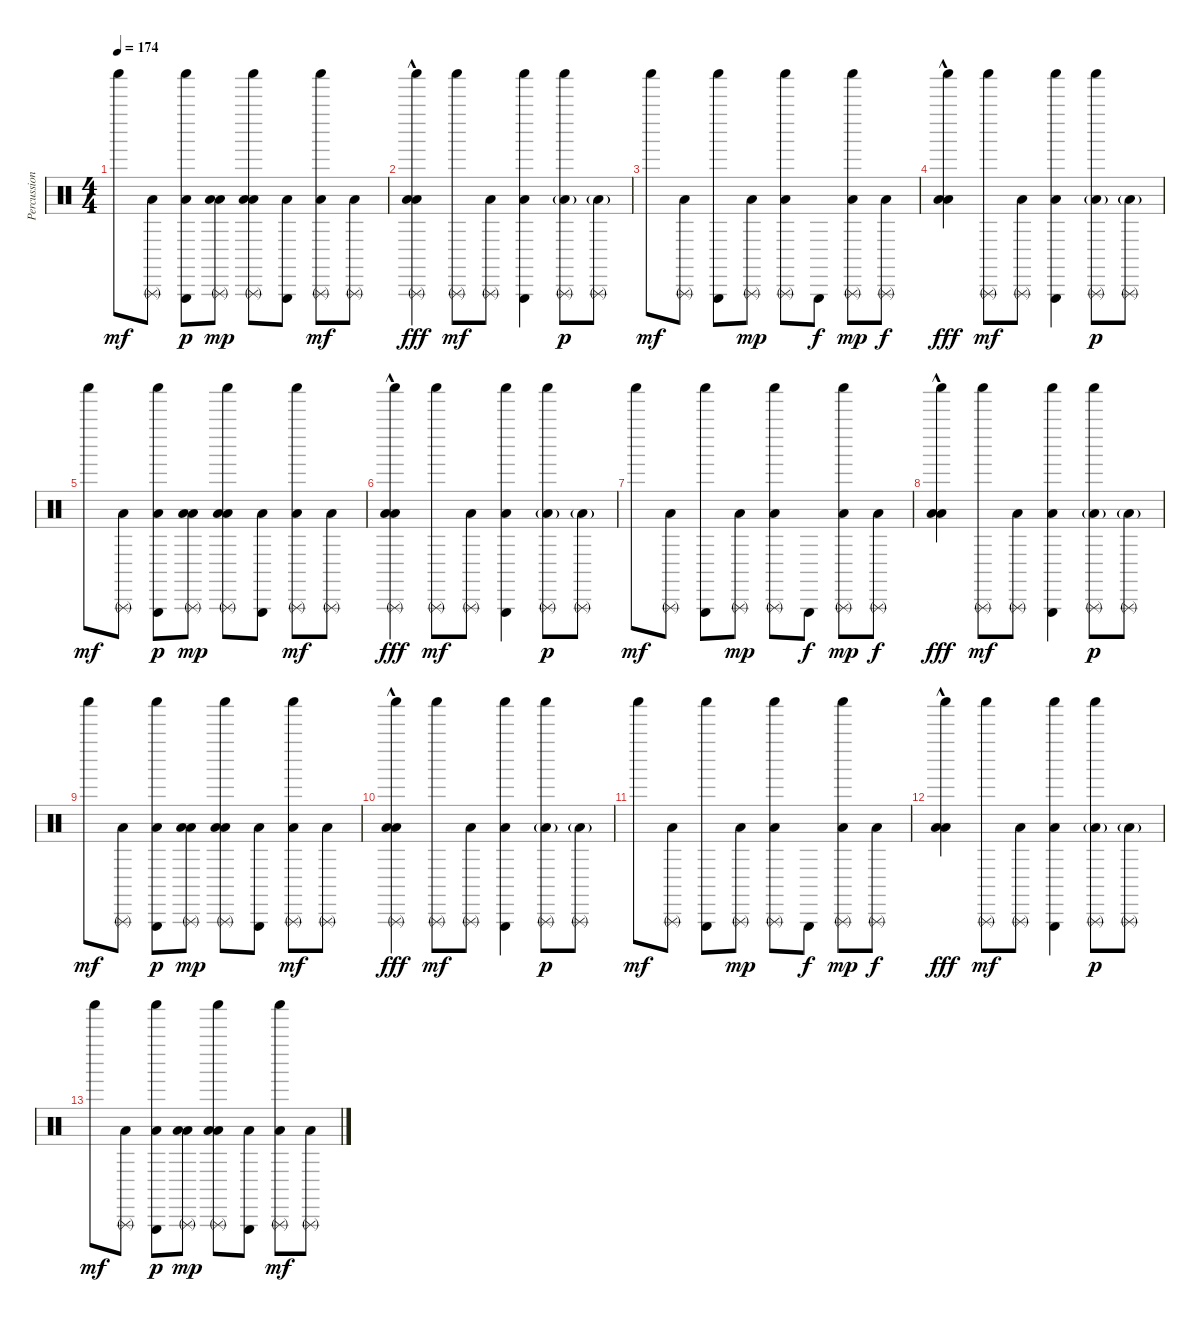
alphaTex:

\track ("Percussion" "Percussion") {instrument percussion}
\staff {score}
\articulation defaults
\ts (4 4)
\tempo 174
\clef neutral
\ks c "Shaker (hit)".8{dy mf}
("Triangle (rnute)" "Low Floor Tom (hit)").8 ("Shaker (hit)" "Triangle (hit)" "Low Tom (hit)").8{dy p} ("Triangle (rnute)" "Low Tom (hit)" "Low Floor Tom (hit)").8{dy mp} ("Shaker (hit)" "Triangle (rnute)" "Low Tom (hit)" "Low Floor Tom (hit)").8 ("Triangle (hit)" "Low Tom (hit)").8 ("Shaker (hit)" "Triangle (rnute)" "Low Tom (hit)").8{dy mf} ("Triangle (rnute)" "Low Tom (hit)").8 |
("Shaker (hit)" "Triangle (rnute)" "Low Tom (hit)"{hac} "Low Floor Tom (hit)"{hac}).4{dy fff} ("Shaker (hit)" "Triangle (rnute)").8{dy mf} ("Triangle (rnute)" "Low Floor Tom (hit)").8 ("Shaker (hit)" "Triangle (hit)" "Low Floor Tom (hit)").4 ("Shaker (hit)" "Triangle (rnute)" "Low Floor Tom (hit)"{g}).8{dy p} ("Triangle (rnute)" "Low Floor Tom (hit)"{g}).8 |
"Shaker (hit)".8{dy mf} ("Triangle (rnute)" "Low Floor Tom (hit)").8 ("Shaker (hit)" "Triangle (hit)").8 ("Triangle (rnute)" "Low Floor Tom (hit)").8{dy mp} ("Shaker (hit)" "Triangle (rnute)" "Low Floor Tom (hit)").8 "Triangle (hit)".8{dy f} ("Shaker (hit)" "Triangle (rnute)" "Low Tom (hit)").8{dy mp} ("Triangle (rnute)" "Low Tom (hit)").8{dy f} |
("Shaker (hit)" "Low Tom (hit)"{hac} "Low Floor Tom (hit)"{hac}).4{dy fff} ("Shaker (hit)" "Triangle (rnute)").8{dy mf} ("Triangle (rnute)" "Low Floor Tom (hit)").8 ("Shaker (hit)" "Triangle (hit)" "Low Floor Tom (hit)").4 ("Shaker (hit)" "Triangle (rnute)" "Low Floor Tom (hit)"{g}).8{dy p} ("Triangle (rnute)" "Low Floor Tom (hit)"{g}).8 |
"Shaker (hit)".8{dy mf} ("Triangle (rnute)" "Low Floor Tom (hit)").8 ("Shaker (hit)" "Triangle (hit)" "Low Tom (hit)").8{dy p} ("Triangle (rnute)" "Low Tom (hit)" "Low Floor Tom (hit)").8{dy mp} ("Shaker (hit)" "Triangle (rnute)" "Low Tom (hit)" "Low Floor Tom (hit)").8 ("Triangle (hit)" "Low Tom (hit)").8 ("Shaker (hit)" "Triangle (rnute)" "Low Tom (hit)").8{dy mf} ("Triangle (rnute)" "Low Tom (hit)").8 |
("Shaker (hit)" "Triangle (rnute)" "Low Tom (hit)"{hac} "Low Floor Tom (hit)"{hac}).4{dy fff} ("Shaker (hit)" "Triangle (rnute)").8{dy mf} ("Triangle (rnute)" "Low Floor Tom (hit)").8 ("Shaker (hit)" "Triangle (hit)" "Low Floor Tom (hit)").4 ("Shaker (hit)" "Triangle (rnute)" "Low Floor Tom (hit)"{g}).8{dy p} ("Triangle (rnute)" "Low Floor Tom (hit)"{g}).8 |
"Shaker (hit)".8{dy mf} ("Triangle (rnute)" "Low Floor Tom (hit)").8 ("Shaker (hit)" "Triangle (hit)").8 ("Triangle (rnute)" "Low Floor Tom (hit)").8{dy mp} ("Shaker (hit)" "Triangle (rnute)" "Low Floor Tom (hit)").8 "Triangle (hit)".8{dy f} ("Shaker (hit)" "Triangle (rnute)" "Low Tom (hit)").8{dy mp} ("Triangle (rnute)" "Low Tom (hit)").8{dy f} |
("Shaker (hit)" "Low Tom (hit)"{hac} "Low Floor Tom (hit)"{hac}).4{dy fff} ("Shaker (hit)" "Triangle (rnute)").8{dy mf} ("Triangle (rnute)" "Low Floor Tom (hit)").8 ("Shaker (hit)" "Triangle (hit)" "Low Floor Tom (hit)").4 ("Shaker (hit)" "Triangle (rnute)" "Low Floor Tom (hit)"{g}).8{dy p} ("Triangle (rnute)" "Low Floor Tom (hit)"{g}).8 |
"Shaker (hit)".8{dy mf} ("Triangle (rnute)" "Low Floor Tom (hit)").8 ("Shaker (hit)" "Triangle (hit)" "Low Tom (hit)").8{dy p} ("Triangle (rnute)" "Low Tom (hit)" "Low Floor Tom (hit)").8{dy mp} ("Shaker (hit)" "Triangle (rnute)" "Low Tom (hit)" "Low Floor Tom (hit)").8 ("Triangle (hit)" "Low Tom (hit)").8 ("Shaker (hit)" "Triangle (rnute)" "Low Tom (hit)").8{dy mf} ("Triangle (rnute)" "Low Tom (hit)").8 |
("Shaker (hit)" "Triangle (rnute)" "Low Tom (hit)"{hac} "Low Floor Tom (hit)"{hac}).4{dy fff} ("Shaker (hit)" "Triangle (rnute)").8{dy mf} ("Triangle (rnute)" "Low Floor Tom (hit)").8 ("Shaker (hit)" "Triangle (hit)" "Low Floor Tom (hit)").4 ("Shaker (hit)" "Triangle (rnute)" "Low Floor Tom (hit)"{g}).8{dy p} ("Triangle (rnute)" "Low Floor Tom (hit)"{g}).8 |
"Shaker (hit)".8{dy mf} ("Triangle (rnute)" "Low Floor Tom (hit)").8 ("Shaker (hit)" "Triangle (hit)").8 ("Triangle (rnute)" "Low Floor Tom (hit)").8{dy mp} ("Shaker (hit)" "Triangle (rnute)" "Low Floor Tom (hit)").8 "Triangle (hit)".8{dy f} ("Shaker (hit)" "Triangle (rnute)" "Low Tom (hit)").8{dy mp} ("Triangle (rnute)" "Low Tom (hit)").8{dy f} |
("Shaker (hit)" "Low Tom (hit)"{hac} "Low Floor Tom (hit)"{hac}).4{dy fff} ("Shaker (hit)" "Triangle (rnute)").8{dy mf} ("Triangle (rnute)" "Low Floor Tom (hit)").8 ("Shaker (hit)" "Triangle (hit)" "Low Floor Tom (hit)").4 ("Shaker (hit)" "Triangle (rnute)" "Low Floor Tom (hit)"{g}).8{dy p} ("Triangle (rnute)" "Low Floor Tom (hit)"{g}).8 |
"Shaker (hit)".8{dy mf} ("Triangle (rnute)" "Low Floor Tom (hit)").8 ("Shaker (hit)" "Triangle (hit)" "Low Tom (hit)").8{dy p} ("Triangle (rnute)" "Low Tom (hit)" "Low Floor Tom (hit)").8{dy mp} ("Shaker (hit)" "Triangle (rnute)" "Low Tom (hit)" "Low Floor Tom (hit)").8 ("Triangle (hit)" "Low Tom (hit)").8 ("Shaker (hit)" "Triangle (rnute)" "Low Tom (hit)").8{dy mf} ("Triangle (rnute)" "Low Tom (hit)").8
